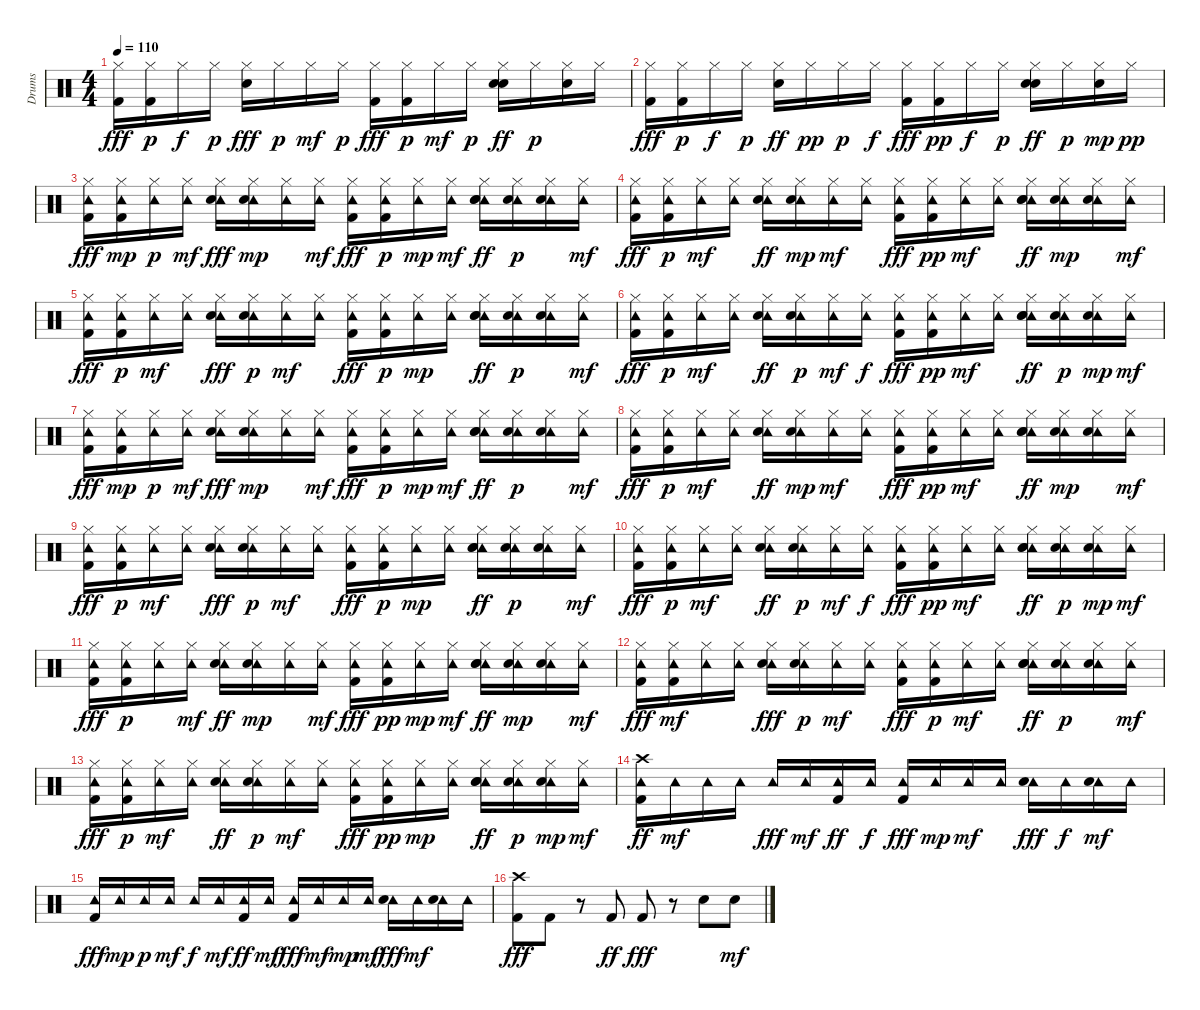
\track ("Drums" "Drums") {instrument percussion}
\staff {score}
\articulation defaults
\ts (4 4)
\tempo 110
\clef neutral
\ks c
("Hi-Hat (closed)" "Kick (hit) 2").16{dy fff} ("Hi-Hat (closed)" "Kick (hit) 2").16{dy p} "Hi-Hat (closed)".16{dy f} "Hi-Hat (closed)".16{dy p} ("Hi-Hat (closed)" "Snare (hit) 2").16{dy fff} "Hi-Hat (closed)".16{dy p} "Hi-Hat (closed)".16{dy mf} "Hi-Hat (closed)".16{dy p} ("Hi-Hat (closed)" "Kick (hit) 2").16{dy fff} ("Hi-Hat (closed)" "Kick (hit) 2").16{dy p} "Hi-Hat (closed)".16{dy mf} "Hi-Hat (closed)".16{dy p} ("Hi-Hat (closed)" "Snare (hit) 2" "Hand Clap (hit)").16{dy ff} "Hi-Hat (closed)".16{dy p} ("Hi-Hat (closed)" "Hand Clap (hit)").16 "Hi-Hat (closed)".16 |
("Hi-Hat (closed)" "Kick (hit) 2").16{dy fff} ("Hi-Hat (closed)" "Kick (hit) 2").16{dy p} "Hi-Hat (closed)".16{dy f} "Hi-Hat (closed)".16{dy p} ("Hi-Hat (closed)" "Snare (hit) 2").16{dy ff} "Hi-Hat (closed)".16{dy pp} "Hi-Hat (closed)".16{dy p} "Hi-Hat (closed)".16{dy f} ("Hi-Hat (closed)" "Kick (hit) 2").16{dy fff} ("Hi-Hat (closed)" "Kick (hit) 2").16{dy pp} "Hi-Hat (closed)".16{dy f} "Hi-Hat (closed)".16{dy p} ("Hi-Hat (closed)" "Snare (hit) 2" "Hand Clap (hit)").16{dy ff} "Hi-Hat (closed)".16{dy p} ("Hi-Hat (closed)" "Hand Clap (hit)").16{dy mp} "Hi-Hat (closed)".16{dy pp} |
("Hi-Hat (closed)" "Tambourine (hit)" "Kick (hit) 2").16{dy fff} ("Hi-Hat (closed)" "Tambourine (hit)" "Kick (hit) 2").16{dy mp} ("Hi-Hat (closed)" "Tambourine (hit)").16{dy p} ("Hi-Hat (closed)" "Tambourine (hit)").16{dy mf} ("Hi-Hat (closed)" "Tambourine (hit)" "Snare (hit) 2").16{dy fff} ("Hi-Hat (closed)" "Tambourine (hit)" "Snare (hit) 2").16{dy mp} ("Hi-Hat (closed)" "Tambourine (hit)").16 ("Hi-Hat (closed)" "Tambourine (hit)").16{dy mf} ("Hi-Hat (closed)" "Tambourine (hit)" "Kick (hit) 2").16{dy fff} ("Hi-Hat (closed)" "Tambourine (hit)" "Kick (hit) 2").16{dy p} ("Hi-Hat (closed)" "Tambourine (hit)").16{dy mp} ("Hi-Hat (closed)" "Tambourine (hit)").16{dy mf} ("Hi-Hat (closed)" "Tambourine (hit)" "Snare (hit) 2" "Hand Clap (hit)").16{dy ff} ("Hi-Hat (closed)" "Tambourine (hit)" "Snare (hit) 2").16{dy p} ("Hi-Hat (closed)" "Tambourine (hit)" "Hand Clap (hit)").16 ("Hi-Hat (closed)" "Tambourine (hit)").16{dy mf} |
("Hi-Hat (closed)" "Tambourine (hit)" "Kick (hit) 2").16{dy fff} ("Hi-Hat (closed)" "Tambourine (hit)" "Kick (hit) 2").16{dy p} ("Hi-Hat (closed)" "Tambourine (hit)").16{dy mf} ("Hi-Hat (closed)" "Tambourine (hit)").16 ("Hi-Hat (closed)" "Tambourine (hit)" "Snare (hit) 2").16{dy ff} ("Hi-Hat (closed)" "Tambourine (hit)" "Snare (hit) 2").16{dy mp} ("Hi-Hat (closed)" "Tambourine (hit)").16{dy mf} ("Hi-Hat (closed)" "Tambourine (hit)").16 ("Hi-Hat (closed)" "Tambourine (hit)" "Kick (hit) 2").16{dy fff} ("Hi-Hat (closed)" "Tambourine (hit)" "Kick (hit) 2").16{dy pp} ("Hi-Hat (closed)" "Tambourine (hit)").16{dy mf} ("Hi-Hat (closed)" "Tambourine (hit)").16 ("Hi-Hat (closed)" "Tambourine (hit)" "Snare (hit) 2" "Hand Clap (hit)").16{dy ff} ("Hi-Hat (closed)" "Tambourine (hit)" "Snare (hit) 2").16{dy mp} ("Hi-Hat (closed)" "Tambourine (hit)" "Hand Clap (hit)").16 ("Hi-Hat (closed)" "Tambourine (hit)").16{dy mf} |
("Hi-Hat (closed)" "Tambourine (hit)" "Kick (hit) 2").16{dy fff} ("Hi-Hat (closed)" "Tambourine (hit)" "Kick (hit) 2").16{dy p} ("Hi-Hat (closed)" "Tambourine (hit)").16{dy mf} ("Hi-Hat (closed)" "Tambourine (hit)").16 ("Hi-Hat (closed)" "Tambourine (hit)" "Snare (hit) 2").16{dy fff} ("Hi-Hat (closed)" "Tambourine (hit)" "Snare (hit) 2").16{dy p} ("Hi-Hat (closed)" "Tambourine (hit)").16{dy mf} ("Hi-Hat (closed)" "Tambourine (hit)").16 ("Hi-Hat (closed)" "Tambourine (hit)" "Kick (hit) 2").16{dy fff} ("Hi-Hat (closed)" "Tambourine (hit)" "Kick (hit) 2").16{dy p} ("Hi-Hat (closed)" "Tambourine (hit)").16{dy mp} ("Hi-Hat (closed)" "Tambourine (hit)").16 ("Hi-Hat (closed)" "Tambourine (hit)" "Snare (hit) 2" "Hand Clap (hit)").16{dy ff} ("Hi-Hat (closed)" "Tambourine (hit)" "Snare (hit) 2").16{dy p} ("Hi-Hat (closed)" "Tambourine (hit)" "Hand Clap (hit)").16 ("Hi-Hat (closed)" "Tambourine (hit)").16{dy mf} |
("Hi-Hat (closed)" "Tambourine (hit)" "Kick (hit) 2").16{dy fff} ("Hi-Hat (closed)" "Tambourine (hit)" "Kick (hit) 2").16{dy p} ("Hi-Hat (closed)" "Tambourine (hit)").16{dy mf} ("Hi-Hat (closed)" "Tambourine (hit)").16 ("Hi-Hat (closed)" "Tambourine (hit)" "Snare (hit) 2").16{dy ff} ("Hi-Hat (closed)" "Tambourine (hit)" "Snare (hit) 2").16{dy p} ("Hi-Hat (closed)" "Tambourine (hit)").16{dy mf} ("Hi-Hat (closed)" "Tambourine (hit)").16{dy f} ("Hi-Hat (closed)" "Tambourine (hit)" "Kick (hit) 2").16{dy fff} ("Hi-Hat (closed)" "Tambourine (hit)" "Kick (hit) 2").16{dy pp} ("Hi-Hat (closed)" "Tambourine (hit)").16{dy mf} ("Hi-Hat (closed)" "Tambourine (hit)").16 ("Hi-Hat (closed)" "Tambourine (hit)" "Snare (hit) 2" "Hand Clap (hit)").16{dy ff} ("Hi-Hat (closed)" "Tambourine (hit)" "Snare (hit) 2").16{dy p} ("Hi-Hat (closed)" "Tambourine (hit)" "Hand Clap (hit)").16{dy mp} ("Hi-Hat (closed)" "Tambourine (hit)").16{dy mf} |
("Hi-Hat (closed)" "Tambourine (hit)" "Kick (hit) 2").16{dy fff} ("Hi-Hat (closed)" "Tambourine (hit)" "Kick (hit) 2").16{dy mp} ("Hi-Hat (closed)" "Tambourine (hit)").16{dy p} ("Hi-Hat (closed)" "Tambourine (hit)").16{dy mf} ("Hi-Hat (closed)" "Tambourine (hit)" "Snare (hit) 2").16{dy fff} ("Hi-Hat (closed)" "Tambourine (hit)" "Snare (hit) 2").16{dy mp} ("Hi-Hat (closed)" "Tambourine (hit)").16 ("Hi-Hat (closed)" "Tambourine (hit)").16{dy mf} ("Hi-Hat (closed)" "Tambourine (hit)" "Kick (hit) 2").16{dy fff} ("Hi-Hat (closed)" "Tambourine (hit)" "Kick (hit) 2").16{dy p} ("Hi-Hat (closed)" "Tambourine (hit)").16{dy mp} ("Hi-Hat (closed)" "Tambourine (hit)").16{dy mf} ("Hi-Hat (closed)" "Tambourine (hit)" "Snare (hit) 2" "Hand Clap (hit)").16{dy ff} ("Hi-Hat (closed)" "Tambourine (hit)" "Snare (hit) 2").16{dy p} ("Hi-Hat (closed)" "Tambourine (hit)" "Hand Clap (hit)").16 ("Hi-Hat (closed)" "Tambourine (hit)").16{dy mf} |
("Hi-Hat (closed)" "Tambourine (hit)" "Kick (hit) 2").16{dy fff} ("Hi-Hat (closed)" "Tambourine (hit)" "Kick (hit) 2").16{dy p} ("Hi-Hat (closed)" "Tambourine (hit)").16{dy mf} ("Hi-Hat (closed)" "Tambourine (hit)").16 ("Hi-Hat (closed)" "Tambourine (hit)" "Snare (hit) 2").16{dy ff} ("Hi-Hat (closed)" "Tambourine (hit)" "Snare (hit) 2").16{dy mp} ("Hi-Hat (closed)" "Tambourine (hit)").16{dy mf} ("Hi-Hat (closed)" "Tambourine (hit)").16 ("Hi-Hat (closed)" "Tambourine (hit)" "Kick (hit) 2").16{dy fff} ("Hi-Hat (closed)" "Tambourine (hit)" "Kick (hit) 2").16{dy pp} ("Hi-Hat (closed)" "Tambourine (hit)").16{dy mf} ("Hi-Hat (closed)" "Tambourine (hit)").16 ("Hi-Hat (closed)" "Tambourine (hit)" "Snare (hit) 2" "Hand Clap (hit)").16{dy ff} ("Hi-Hat (closed)" "Tambourine (hit)" "Snare (hit) 2").16{dy mp} ("Hi-Hat (closed)" "Tambourine (hit)" "Hand Clap (hit)").16 ("Hi-Hat (closed)" "Tambourine (hit)").16{dy mf} |
("Hi-Hat (closed)" "Tambourine (hit)" "Kick (hit) 2").16{dy fff} ("Hi-Hat (closed)" "Tambourine (hit)" "Kick (hit) 2").16{dy p} ("Hi-Hat (closed)" "Tambourine (hit)").16{dy mf} ("Hi-Hat (closed)" "Tambourine (hit)").16 ("Hi-Hat (closed)" "Tambourine (hit)" "Snare (hit) 2").16{dy fff} ("Hi-Hat (closed)" "Tambourine (hit)" "Snare (hit) 2").16{dy p} ("Hi-Hat (closed)" "Tambourine (hit)").16{dy mf} ("Hi-Hat (closed)" "Tambourine (hit)").16 ("Hi-Hat (closed)" "Tambourine (hit)" "Kick (hit) 2").16{dy fff} ("Hi-Hat (closed)" "Tambourine (hit)" "Kick (hit) 2").16{dy p} ("Hi-Hat (closed)" "Tambourine (hit)").16{dy mp} ("Hi-Hat (closed)" "Tambourine (hit)").16 ("Hi-Hat (closed)" "Tambourine (hit)" "Snare (hit) 2" "Hand Clap (hit)").16{dy ff} ("Hi-Hat (closed)" "Tambourine (hit)" "Snare (hit) 2").16{dy p} ("Hi-Hat (closed)" "Tambourine (hit)" "Hand Clap (hit)").16 ("Hi-Hat (closed)" "Tambourine (hit)").16{dy mf} |
("Hi-Hat (closed)" "Tambourine (hit)" "Kick (hit) 2").16{dy fff} ("Hi-Hat (closed)" "Tambourine (hit)" "Kick (hit) 2").16{dy p} ("Hi-Hat (closed)" "Tambourine (hit)").16{dy mf} ("Hi-Hat (closed)" "Tambourine (hit)").16 ("Hi-Hat (closed)" "Tambourine (hit)" "Snare (hit) 2").16{dy ff} ("Hi-Hat (closed)" "Tambourine (hit)" "Snare (hit) 2").16{dy p} ("Hi-Hat (closed)" "Tambourine (hit)").16{dy mf} ("Hi-Hat (closed)" "Tambourine (hit)").16{dy f} ("Hi-Hat (closed)" "Tambourine (hit)" "Kick (hit) 2").16{dy fff} ("Hi-Hat (closed)" "Tambourine (hit)" "Kick (hit) 2").16{dy pp} ("Hi-Hat (closed)" "Tambourine (hit)").16{dy mf} ("Hi-Hat (closed)" "Tambourine (hit)").16 ("Hi-Hat (closed)" "Tambourine (hit)" "Snare (hit) 2" "Hand Clap (hit)").16{dy ff} ("Hi-Hat (closed)" "Tambourine (hit)" "Snare (hit) 2").16{dy p} ("Hi-Hat (closed)" "Tambourine (hit)" "Hand Clap (hit)").16{dy mp} ("Hi-Hat (closed)" "Tambourine (hit)").16{dy mf} |
("Hi-Hat (closed)" "Tambourine (hit)" "Kick (hit) 2").16{dy fff} ("Hi-Hat (closed)" "Tambourine (hit)" "Kick (hit) 2").16{dy p} ("Hi-Hat (closed)" "Tambourine (hit)").16 ("Hi-Hat (closed)" "Tambourine (hit)").16{dy mf} ("Hi-Hat (closed)" "Tambourine (hit)" "Snare (hit) 2").16{dy ff} ("Hi-Hat (closed)" "Tambourine (hit)" "Snare (hit) 2").16{dy mp} ("Hi-Hat (closed)" "Tambourine (hit)").16 ("Hi-Hat (closed)" "Tambourine (hit)").16{dy mf} ("Hi-Hat (closed)" "Tambourine (hit)" "Kick (hit) 2").16{dy fff} ("Hi-Hat (closed)" "Tambourine (hit)" "Kick (hit) 2").16{dy pp} ("Hi-Hat (closed)" "Tambourine (hit)").16{dy mp} ("Hi-Hat (closed)" "Tambourine (hit)").16{dy mf} ("Hi-Hat (closed)" "Tambourine (hit)" "Snare (hit) 2" "Hand Clap (hit)").16{dy ff} ("Hi-Hat (closed)" "Tambourine (hit)" "Snare (hit) 2").16{dy mp} ("Hi-Hat (closed)" "Tambourine (hit)" "Hand Clap (hit)").16 ("Hi-Hat (closed)" "Tambourine (hit)").16{dy mf} |
("Hi-Hat (closed)" "Tambourine (hit)" "Kick (hit) 2").16{dy fff} ("Hi-Hat (closed)" "Tambourine (hit)" "Kick (hit) 2").16{dy mf} ("Hi-Hat (closed)" "Tambourine (hit)").16 ("Hi-Hat (closed)" "Tambourine (hit)").16 ("Hi-Hat (closed)" "Tambourine (hit)" "Snare (hit) 2").16{dy fff} ("Hi-Hat (closed)" "Tambourine (hit)" "Snare (hit) 2").16{dy p} ("Hi-Hat (closed)" "Tambourine (hit)").16{dy mf} ("Hi-Hat (closed)" "Tambourine (hit)").16 ("Hi-Hat (closed)" "Tambourine (hit)" "Kick (hit) 2").16{dy fff} ("Hi-Hat (closed)" "Tambourine (hit)" "Kick (hit) 2").16{dy p} ("Hi-Hat (closed)" "Tambourine (hit)").16{dy mf} ("Hi-Hat (closed)" "Tambourine (hit)").16 ("Hi-Hat (closed)" "Tambourine (hit)" "Snare (hit) 2" "Hand Clap (hit)").16{dy ff} ("Hi-Hat (closed)" "Tambourine (hit)" "Snare (hit) 2").16{dy p} ("Hi-Hat (closed)" "Tambourine (hit)" "Hand Clap (hit)").16 ("Hi-Hat (closed)" "Tambourine (hit)").16{dy mf} |
("Hi-Hat (closed)" "Tambourine (hit)" "Kick (hit) 2").16{dy fff} ("Hi-Hat (closed)" "Tambourine (hit)" "Kick (hit) 2").16{dy p} ("Hi-Hat (closed)" "Tambourine (hit)").16{dy mf} ("Hi-Hat (closed)" "Tambourine (hit)").16 ("Hi-Hat (closed)" "Tambourine (hit)" "Snare (hit) 2").16{dy ff} ("Hi-Hat (closed)" "Tambourine (hit)" "Snare (hit) 2").16{dy p} ("Hi-Hat (closed)" "Tambourine (hit)").16{dy mf} ("Hi-Hat (closed)" "Tambourine (hit)").16 ("Hi-Hat (closed)" "Tambourine (hit)" "Kick (hit) 2").16{dy fff} ("Hi-Hat (closed)" "Tambourine (hit)" "Kick (hit) 2").16{dy pp} ("Hi-Hat (closed)" "Tambourine (hit)").16{dy mp} ("Hi-Hat (closed)" "Tambourine (hit)").16 ("Hi-Hat (closed)" "Tambourine (hit)" "Snare (hit) 2" "Hand Clap (hit)").16{dy ff} ("Hi-Hat (closed)" "Tambourine (hit)" "Snare (hit) 2").16{dy p} ("Hi-Hat (closed)" "Tambourine (hit)" "Hand Clap (hit)").16{dy mp} ("Hi-Hat (closed)" "Tambourine (hit)").16{dy mf} |
("Crash high (hit)" "Tambourine (hit)" "Kick (hit) 2").16{dy ff} "Tambourine (hit)".16{dy mf} "Tambourine (hit)".16 "Tambourine (hit)".16 "Tambourine (hit)".16{dy fff} "Tambourine (hit)".16{dy mf} ("Tambourine (hit)" "Kick (hit) 2").16{dy ff} "Tambourine (hit)".16{dy f} ("Tambourine (hit)" "Kick (hit) 2").16{dy fff} "Tambourine (hit)".16{dy mp} "Tambourine (hit)".16{dy mf} "Tambourine (hit)".16 ("Tambourine (hit)" "Hand Clap (hit)").16{dy fff} "Tambourine (hit)".16{dy f} ("Tambourine (hit)" "Hand Clap (hit)").16{dy mf} "Tambourine (hit)".16 |
("Tambourine (hit)" "Kick (hit) 2").16{dy fff} "Tambourine (hit)".16{dy mp} "Tambourine (hit)".16{dy p} "Tambourine (hit)".16{dy mf} "Tambourine (hit)".16{dy f} "Tambourine (hit)".16{dy mf} ("Tambourine (hit)" "Kick (hit) 2").16{dy ff} "Tambourine (hit)".16{dy mf} ("Tambourine (hit)" "Kick (hit) 2").16{dy fff} "Tambourine (hit)".16{dy mf} "Tambourine (hit)".16{dy mp} "Tambourine (hit)".16{dy mf} ("Tambourine (hit)" "Hand Clap (hit)").16{dy fff} "Tambourine (hit)".16{dy mf} ("Tambourine (hit)" "Hand Clap (hit)").16 "Tambourine (hit)".16 |
("Crash high (hit)" "Kick (hit) 2").8{dy fff} "Kick (hit) 2".8 r.8 "Kick (hit) 2".8{dy ff} "Kick (hit) 2".8{dy fff} r.8 "Hand Clap (hit)".8 "Hand Clap (hit)".8{dy mf}
